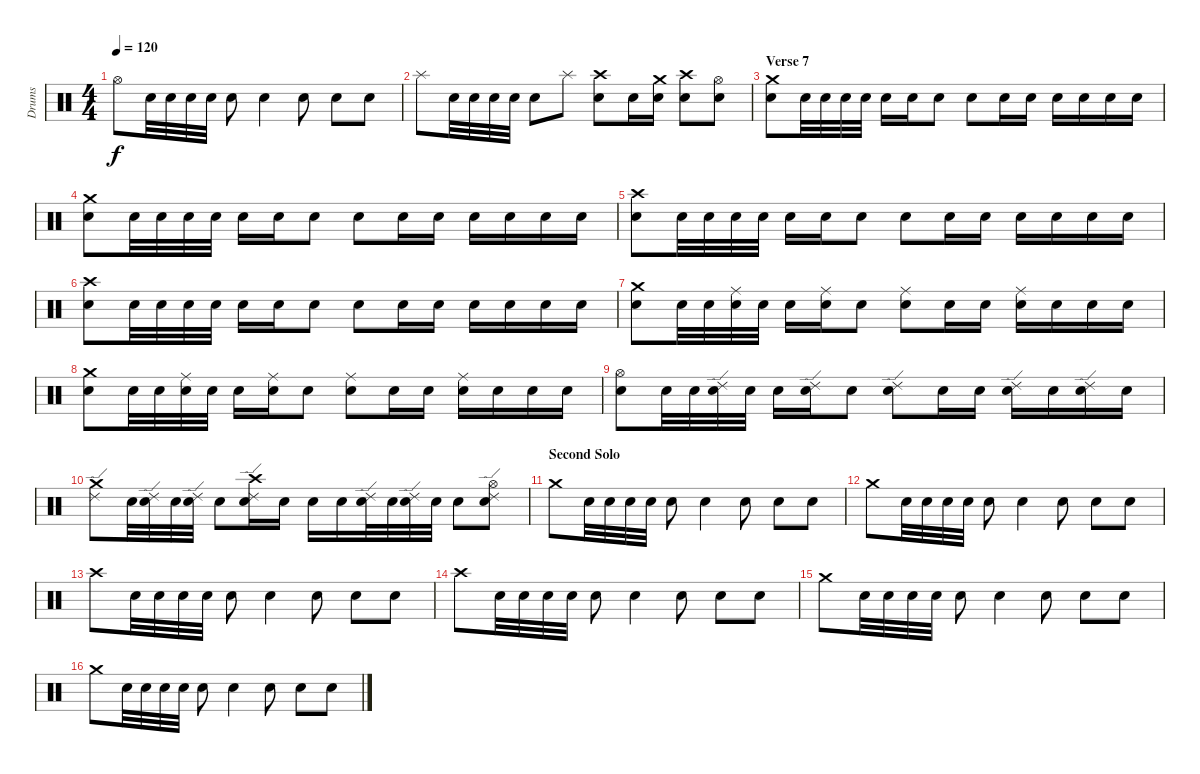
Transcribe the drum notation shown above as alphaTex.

\track ("Drums" "Drums") {instrument percussion}
\staff {score}
\articulation defaults
\ts (4 4)
\tempo 120
\clef neutral
\ks c "Hi-Hat (open)".8{dy f} "Electric Snare (hit)".32 "Electric Snare (hit)".32 "Electric Snare (hit)".32 "Electric Snare (hit)".32 "Electric Snare (hit)".8 "Electric Snare (hit)".4 "Electric Snare (hit)".8 "Electric Snare (hit)".8 "Electric Snare (hit)".8
|
"Splash (hit)".8 "Electric Snare (hit)".32 "Electric Snare (hit)".32 "Electric Snare (hit)".32 "Electric Snare (hit)".32 "Electric Snare (hit)".8 "Splash (hit)".8 ("Crash high (hit)" "Electric Snare (hit)").8 "Electric Snare (hit)".16 ("Crash medium (hit)" "Electric Snare (hit)").16 ("Crash high (hit)" "Electric Snare (hit)").8 ("Hi-Hat (open)" "Electric Snare (hit)").8 |
\section ("" "Verse 7")
("Crash medium (hit)" "Snare (hit) 2").8 "Electric Snare (hit)".32 "Electric Snare (hit)".32 "Electric Snare (hit)".32 "Electric Snare (hit)".32 "Snare (hit) 2".16 "Electric Snare (hit)".16 "Snare (hit) 2".8 "Electric Snare (hit)".8 "Snare (hit) 2".16 "Electric Snare (hit)".16 "Snare (hit) 2".16 "Electric Snare (hit)".16 "Snare (hit) 2".16 "Electric Snare (hit)".16 |
("Crash medium (hit)" "Snare (hit) 2").8 "Electric Snare (hit)".32 "Electric Snare (hit)".32 "Electric Snare (hit)".32 "Electric Snare (hit)".32 "Snare (hit) 2".16 "Electric Snare (hit)".16 "Snare (hit) 2".8 "Electric Snare (hit)".8 "Snare (hit) 2".16 "Electric Snare (hit)".16 "Snare (hit) 2".16 "Electric Snare (hit)".16 "Snare (hit) 2".16 "Electric Snare (hit)".16 |
("Crash high (hit)" "Snare (hit) 2").8 "Electric Snare (hit)".32 "Electric Snare (hit)".32 "Electric Snare (hit)".32 "Electric Snare (hit)".32 "Snare (hit) 2".16 "Electric Snare (hit)".16 "Snare (hit) 2".8 "Electric Snare (hit)".8 "Snare (hit) 2".16 "Electric Snare (hit)".16 "Snare (hit) 2".16 "Electric Snare (hit)".16 "Snare (hit) 2".16 "Electric Snare (hit)".16 |
("Crash high (hit)" "Snare (hit) 2").8 "Electric Snare (hit)".32 "Electric Snare (hit)".32 "Electric Snare (hit)".32 "Electric Snare (hit)".32 "Snare (hit) 2".16 "Electric Snare (hit)".16 "Snare (hit) 2".8 "Electric Snare (hit)".8 "Snare (hit) 2".16 "Electric Snare (hit)".16 "Snare (hit) 2".16 "Electric Snare (hit)".16 "Snare (hit) 2".16 "Electric Snare (hit)".16 |
("Crash medium (hit)" "Snare (hit) 2").8 "Electric Snare (hit)".32 "Electric Snare (hit)".32 ("Ride (middle)" "Electric Snare (hit)").32 "Electric Snare (hit)".32 "Snare (hit) 2".16 ("Ride (middle)" "Electric Snare (hit)").16 "Snare (hit) 2".8 ("Ride (middle)" "Electric Snare (hit)").8 "Snare (hit) 2".16 "Electric Snare (hit)".16 ("Ride (middle)" "Snare (hit) 2").16 "Electric Snare (hit)".16 "Snare (hit) 2".16 "Electric Snare (hit)".16 |
("Crash medium (hit)" "Snare (hit) 2").8 "Electric Snare (hit)".32 "Electric Snare (hit)".32 ("Ride (middle)" "Electric Snare (hit)").32 "Electric Snare (hit)".32 "Snare (hit) 2".16 ("Ride (middle)" "Electric Snare (hit)").16 "Snare (hit) 2".8 ("Ride (middle)" "Electric Snare (hit)").8 "Snare (hit) 2".16 "Electric Snare (hit)".16 ("Ride (middle)" "Snare (hit) 2").16 "Electric Snare (hit)".16 "Snare (hit) 2".16 "Electric Snare (hit)".16 |
("Hi-Hat (open)" "Snare (hit) 2").8 "Electric Snare (hit)".32 "Electric Snare (hit)".32 ("Ride (edge) 2" "Electric Snare (hit)").32 "Electric Snare (hit)".32 "Snare (hit) 2".16 ("Ride (edge) 2" "Electric Snare (hit)").16 "Snare (hit) 2".8 ("Ride (edge) 2" "Electric Snare (hit)").8 "Snare (hit) 2".16 "Electric Snare (hit)".16 ("Ride (edge) 2" "Snare (hit) 2").16 "Electric Snare (hit)".16 ("Ride (edge) 2" "Snare (hit) 2").16 "Electric Snare (hit)".16 |
("Crash medium (hit)" "Ride (edge) 2").8 "Electric Snare (hit)".32 ("Electric Snare (hit)" "Ride (edge) 2").32 "Electric Snare (hit)".32 ("Electric Snare (hit)" "Ride (edge) 2").32 "Electric Snare (hit)".8 ("Crash high (hit)" "Electric Snare (hit)" "Ride (edge) 2").16 "Electric Snare (hit)".16 "Snare (hit) 2".16 "Electric Snare (hit)".16 ("Electric Snare (hit)" "Ride (edge) 2").32 "Electric Snare (hit)".32 ("Electric Snare (hit)" "Ride (edge) 2").32 "Electric Snare (hit)".32 "Electric Snare (hit)".8 ("Hi-Hat (open)" "Electric Snare (hit)" "Ride (edge) 2").8 |
\section ("" "Second Solo")
"Crash medium (hit)".8 "Electric Snare (hit)".32 "Electric Snare (hit)".32 "Electric Snare (hit)".32 "Electric Snare (hit)".32 "Electric Snare (hit)".8 "Electric Snare (hit)".4 "Electric Snare (hit)".8 "Electric Snare (hit)".8 "Electric Snare (hit)".8 |
"Crash medium (hit)".8 "Electric Snare (hit)".32 "Electric Snare (hit)".32 "Electric Snare (hit)".32 "Electric Snare (hit)".32 "Electric Snare (hit)".8 "Electric Snare (hit)".4 "Electric Snare (hit)".8 "Electric Snare (hit)".8 "Electric Snare (hit)".8 |
"Crash high (hit)".8 "Electric Snare (hit)".32 "Electric Snare (hit)".32 "Electric Snare (hit)".32 "Electric Snare (hit)".32 "Electric Snare (hit)".8 "Electric Snare (hit)".4 "Electric Snare (hit)".8 "Electric Snare (hit)".8 "Electric Snare (hit)".8 |
"Crash high (hit)".8 "Electric Snare (hit)".32 "Electric Snare (hit)".32 "Electric Snare (hit)".32 "Electric Snare (hit)".32 "Electric Snare (hit)".8 "Electric Snare (hit)".4 "Electric Snare (hit)".8 "Electric Snare (hit)".8 "Electric Snare (hit)".8 |
"Crash medium (hit)".8 "Electric Snare (hit)".32 "Electric Snare (hit)".32 "Electric Snare (hit)".32 "Electric Snare (hit)".32 "Electric Snare (hit)".8 "Electric Snare (hit)".4 "Electric Snare (hit)".8 "Electric Snare (hit)".8 "Electric Snare (hit)".8 |
"Crash medium (hit)".8 "Electric Snare (hit)".32 "Electric Snare (hit)".32 "Electric Snare (hit)".32 "Electric Snare (hit)".32 "Electric Snare (hit)".8 "Electric Snare (hit)".4 "Electric Snare (hit)".8 "Electric Snare (hit)".8 "Electric Snare (hit)".8
